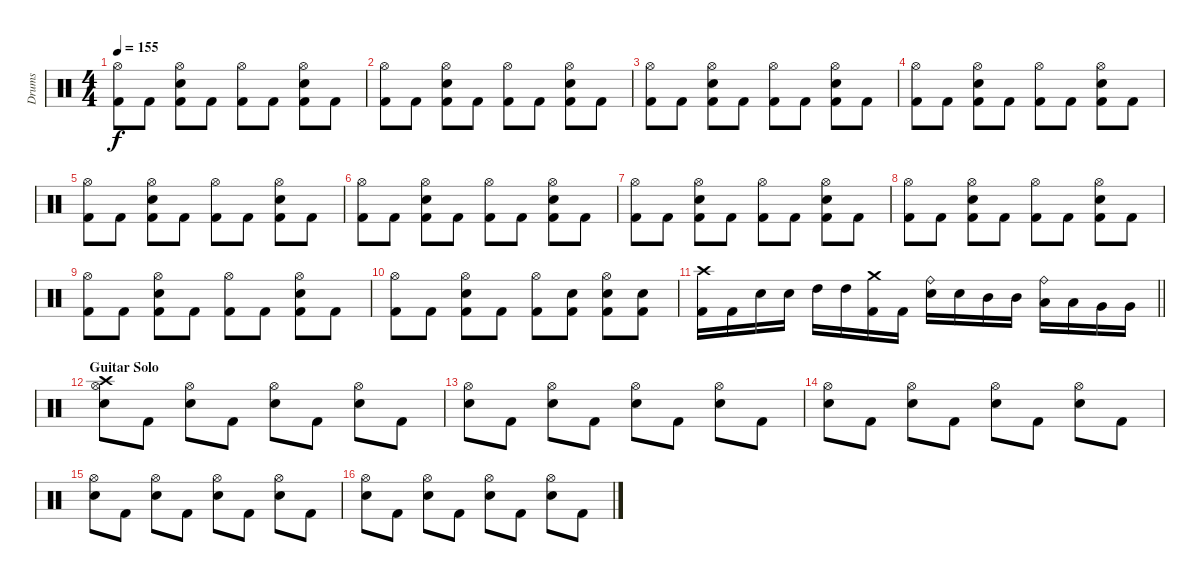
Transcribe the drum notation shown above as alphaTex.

\track ("Drums" "Drums") {instrument percussion}
\staff {score}
\articulation defaults
\ts (4 4)
\tempo 155
\clef neutral
\ks c
("Hi-Hat (open)" "Kick (hit) 2").8{dy f} "Kick (hit) 2".8 ("Hi-Hat (open)" "Snare (hit) 2" "Kick (hit) 2").8 "Kick (hit) 2".8 ("Hi-Hat (open)" "Kick (hit) 2").8 "Kick (hit) 2".8 ("Hi-Hat (open)" "Snare (hit) 2" "Kick (hit) 2").8 "Kick (hit) 2".8 |
("Hi-Hat (open)" "Kick (hit) 2").8 "Kick (hit) 2".8 ("Hi-Hat (open)" "Snare (hit) 2" "Kick (hit) 2").8 "Kick (hit) 2".8 ("Hi-Hat (open)" "Kick (hit) 2").8 "Kick (hit) 2".8 ("Hi-Hat (open)" "Snare (hit) 2" "Kick (hit) 2").8 "Kick (hit) 2".8 |
("Hi-Hat (open)" "Kick (hit) 2").8 "Kick (hit) 2".8 ("Hi-Hat (open)" "Snare (hit) 2" "Kick (hit) 2").8 "Kick (hit) 2".8 ("Hi-Hat (open)" "Kick (hit) 2").8 "Kick (hit) 2".8 ("Hi-Hat (open)" "Snare (hit) 2" "Kick (hit) 2").8 "Kick (hit) 2".8 |
("Hi-Hat (open)" "Kick (hit) 2").8 "Kick (hit) 2".8 ("Hi-Hat (open)" "Snare (hit) 2" "Kick (hit) 2").8 "Kick (hit) 2".8 ("Hi-Hat (open)" "Kick (hit) 2").8 "Kick (hit) 2".8 ("Hi-Hat (open)" "Snare (hit) 2" "Kick (hit) 2").8 "Kick (hit) 2".8 |
("Hi-Hat (open)" "Kick (hit) 2").8 "Kick (hit) 2".8 ("Hi-Hat (open)" "Snare (hit) 2" "Kick (hit) 2").8 "Kick (hit) 2".8 ("Hi-Hat (open)" "Kick (hit) 2").8 "Kick (hit) 2".8 ("Hi-Hat (open)" "Snare (hit) 2" "Kick (hit) 2").8 "Kick (hit) 2".8 |
("Hi-Hat (open)" "Kick (hit) 2").8 "Kick (hit) 2".8 ("Hi-Hat (open)" "Snare (hit) 2" "Kick (hit) 2").8 "Kick (hit) 2".8 ("Hi-Hat (open)" "Kick (hit) 2").8 "Kick (hit) 2".8 ("Hi-Hat (open)" "Snare (hit) 2" "Kick (hit) 2").8 "Kick (hit) 2".8 |
("Hi-Hat (open)" "Kick (hit) 2").8 "Kick (hit) 2".8 ("Hi-Hat (open)" "Snare (hit) 2" "Kick (hit) 2").8 "Kick (hit) 2".8 ("Hi-Hat (open)" "Kick (hit) 2").8 "Kick (hit) 2".8 ("Hi-Hat (open)" "Snare (hit) 2" "Kick (hit) 2").8 "Kick (hit) 2".8 |
("Hi-Hat (open)" "Kick (hit) 2").8 "Kick (hit) 2".8 ("Hi-Hat (open)" "Snare (hit) 2" "Kick (hit) 2").8 "Kick (hit) 2".8 ("Hi-Hat (open)" "Kick (hit) 2").8 "Kick (hit) 2".8 ("Hi-Hat (open)" "Snare (hit) 2" "Kick (hit) 2").8 "Kick (hit) 2".8 |
("Hi-Hat (open)" "Kick (hit) 2").8 "Kick (hit) 2".8 ("Hi-Hat (open)" "Snare (hit) 2" "Kick (hit) 2").8 "Kick (hit) 2".8 ("Hi-Hat (open)" "Kick (hit) 2").8 "Kick (hit) 2".8 ("Hi-Hat (open)" "Snare (hit) 2" "Kick (hit) 2").8 "Kick (hit) 2".8 |
("Hi-Hat (open)" "Kick (hit) 2").8 "Kick (hit) 2".8 ("Hi-Hat (open)" "Snare (hit) 2" "Kick (hit) 2").8 "Kick (hit) 2".8 ("Hi-Hat (open)" "Kick (hit) 2").8 ("Snare (hit) 2" "Kick (hit) 2").8 ("Hi-Hat (open)" "Snare (hit) 2" "Kick (hit) 2").8 ("Snare (hit) 2" "Kick (hit) 2").8 |
\barLineRight lightlight
("Crash high (hit)" "Kick (hit) 2").16 "Kick (hit) 2".16 "Snare (hit) 2".16 "Snare (hit) 2".16 "High Tom (hit)".16 "High Tom (hit)".16 ("Crash medium (hit)" "Kick (hit) 2").16 "Kick (hit) 2".16 ("Ride (bell)" "Snare (hit) 2").16 "Snare (hit) 2".16 "Mid Tom (hit)".16 "Mid Tom (hit)".16 ("Ride (bell)" "Low Tom (hit)").16 "Low Tom (hit)".16 "Very Low Tom (hit)".16 "Very Low Tom (hit)".16 |
\section ("" "Guitar Solo")
("Crash high (hit)" "Hi-Hat (open)" "Snare (hit) 2").8 "Kick (hit) 2".8 ("Hi-Hat (open)" "Snare (hit) 2").8 "Kick (hit) 2".8 ("Hi-Hat (open)" "Snare (hit) 2").8 "Kick (hit) 2".8 ("Hi-Hat (open)" "Snare (hit) 2").8 "Kick (hit) 2".8 |
("Hi-Hat (open)" "Snare (hit) 2").8 "Kick (hit) 2".8 ("Hi-Hat (open)" "Snare (hit) 2").8 "Kick (hit) 2".8 ("Hi-Hat (open)" "Snare (hit) 2").8 "Kick (hit) 2".8 ("Hi-Hat (open)" "Snare (hit) 2").8 "Kick (hit) 2".8 |
("Hi-Hat (open)" "Snare (hit) 2").8 "Kick (hit) 2".8 ("Hi-Hat (open)" "Snare (hit) 2").8 "Kick (hit) 2".8 ("Hi-Hat (open)" "Snare (hit) 2").8 "Kick (hit) 2".8 ("Hi-Hat (open)" "Snare (hit) 2").8 "Kick (hit) 2".8 |
("Hi-Hat (open)" "Snare (hit) 2").8 "Kick (hit) 2".8 ("Hi-Hat (open)" "Snare (hit) 2").8 "Kick (hit) 2".8 ("Hi-Hat (open)" "Snare (hit) 2").8 "Kick (hit) 2".8 ("Hi-Hat (open)" "Snare (hit) 2").8 "Kick (hit) 2".8 |
("Hi-Hat (open)" "Snare (hit) 2").8 "Kick (hit) 2".8 ("Hi-Hat (open)" "Snare (hit) 2").8 "Kick (hit) 2".8 ("Hi-Hat (open)" "Snare (hit) 2").8 "Kick (hit) 2".8 ("Hi-Hat (open)" "Snare (hit) 2").8 "Kick (hit) 2".8
